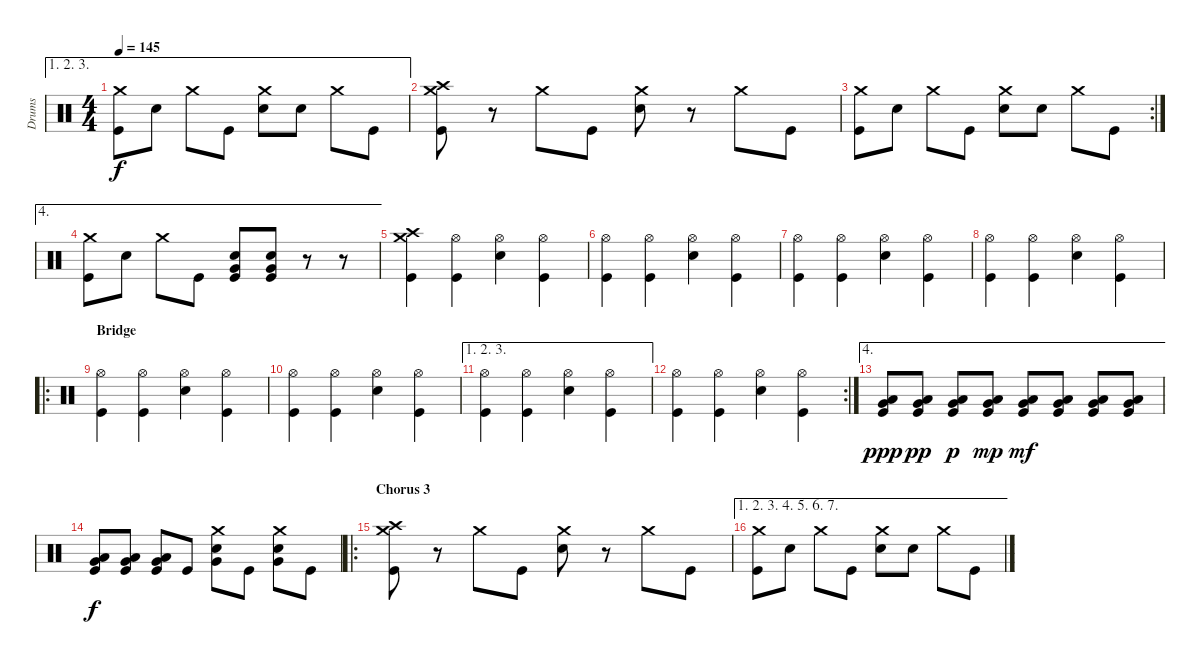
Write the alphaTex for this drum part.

\track ("Drums" "Drums") {instrument percussion}
\staff {score}
\articulation defaults
\ae (1 2 3)
\ts (4 4)
\tempo 145
\clef neutral
\ks c
("Crash medium (hit)" "Kick (hit)").8{dy f} "Electric Snare (hit)".8 "Crash medium (hit)".8 "Kick (hit)".8 ("Crash medium (hit)" "Electric Snare (hit)").8 "Electric Snare (hit)".8 "Crash medium (hit)".8 "Kick (hit)".8 |
("Crash medium (hit)" "Crash high (hit)" "Kick (hit)").8 r.8 "Crash medium (hit)".8 "Kick (hit)".8 ("Crash medium (hit)" "Electric Snare (hit)").8 r.8 "Crash medium (hit)".8 "Kick (hit)".8 |
\rc 2
("Crash medium (hit)" "Kick (hit)").8 "Electric Snare (hit)".8 "Crash medium (hit)".8 "Kick (hit)".8 ("Crash medium (hit)" "Electric Snare (hit)").8 "Electric Snare (hit)".8 "Crash medium (hit)".8 "Kick (hit)".8 |
\ae 4
("Crash medium (hit)" "Kick (hit)").8 "Electric Snare (hit)".8 "Crash medium (hit)".8 "Kick (hit)".8 ("Electric Snare (hit)" "Very Low Tom (hit)" "Kick (hit)").8 ("Electric Snare (hit)" "Very Low Tom (hit)" "Kick (hit)").8 r.8 r.8 |
("Crash medium (hit)" "Crash high (hit)" "Kick (hit)").4 ("Hi-Hat (open)" "Kick (hit)").4 ("Hi-Hat (open)" "Electric Snare (hit)").4 ("Hi-Hat (open)" "Kick (hit)").4 |
("Hi-Hat (open)" "Kick (hit)").4 ("Hi-Hat (open)" "Kick (hit)").4 ("Hi-Hat (open)" "Electric Snare (hit)").4 ("Hi-Hat (open)" "Kick (hit)").4 |
("Hi-Hat (open)" "Kick (hit)").4 ("Hi-Hat (open)" "Kick (hit)").4 ("Hi-Hat (open)" "Electric Snare (hit)").4 ("Hi-Hat (open)" "Kick (hit)").4 |
("Hi-Hat (open)" "Kick (hit)").4 ("Hi-Hat (open)" "Kick (hit)").4 ("Hi-Hat (open)" "Electric Snare (hit)").4 ("Hi-Hat (open)" "Kick (hit)").4 |
\ro
\section ("" "Bridge")
("Hi-Hat (open)" "Kick (hit)").4 ("Hi-Hat (open)" "Kick (hit)").4 ("Hi-Hat (open)" "Electric Snare (hit)").4 ("Hi-Hat (open)" "Kick (hit)").4 |
("Hi-Hat (open)" "Kick (hit)").4 ("Hi-Hat (open)" "Kick (hit)").4 ("Hi-Hat (open)" "Electric Snare (hit)").4 ("Hi-Hat (open)" "Kick (hit)").4 |
\ae (1 2 3)
("Hi-Hat (open)" "Kick (hit)").4 ("Hi-Hat (open)" "Kick (hit)").4 ("Hi-Hat (open)" "Electric Snare (hit)").4 ("Hi-Hat (open)" "Kick (hit)").4 |
\rc 2
("Hi-Hat (open)" "Kick (hit)").4 ("Hi-Hat (open)" "Kick (hit)").4 ("Hi-Hat (open)" "Electric Snare (hit)").4 ("Hi-Hat (open)" "Kick (hit)").4 |
\ae 4
("Low Floor Tom (hit)" "Very Low Tom (hit)" "Kick (hit)").8{dy ppp} ("Low Floor Tom (hit)" "Very Low Tom (hit)" "Kick (hit)").8{dy pp} ("Low Floor Tom (hit)" "Very Low Tom (hit)" "Kick (hit)").8{dy p} ("Low Floor Tom (hit)" "Very Low Tom (hit)" "Kick (hit)").8{dy mp} ("Low Floor Tom (hit)" "Very Low Tom (hit)" "Kick (hit)").8{dy mf} ("Low Floor Tom (hit)" "Very Low Tom (hit)" "Kick (hit)").8 ("Low Floor Tom (hit)" "Very Low Tom (hit)" "Kick (hit)").8 ("Low Floor Tom (hit)" "Very Low Tom (hit)" "Kick (hit)").8 |
("Low Floor Tom (hit)" "Very Low Tom (hit)" "Kick (hit)").8{dy f} ("Low Floor Tom (hit)" "Very Low Tom (hit)" "Kick (hit)").8 ("Low Floor Tom (hit)" "Very Low Tom (hit)" "Kick (hit)").8 "Kick (hit)".8 ("Crash medium (hit)" "Electric Snare (hit)" "Very Low Tom (hit)").8 "Kick (hit)".8 ("Crash medium (hit)" "Electric Snare (hit)" "Very Low Tom (hit)").8 "Kick (hit)".8 |
\ro
\section ("" "Chorus 3")
("Crash medium (hit)" "Crash high (hit)" "Kick (hit)").8 r.8 "Crash medium (hit)".8 "Kick (hit)".8 ("Crash medium (hit)" "Electric Snare (hit)").8 r.8 "Crash medium (hit)".8 "Kick (hit)".8 |
\ae (1 2 3 4 5 6 7)
("Crash medium (hit)" "Kick (hit)").8 "Electric Snare (hit)".8 "Crash medium (hit)".8 "Kick (hit)".8 ("Crash medium (hit)" "Electric Snare (hit)").8 "Electric Snare (hit)".8 "Crash medium (hit)".8 "Kick (hit)".8
